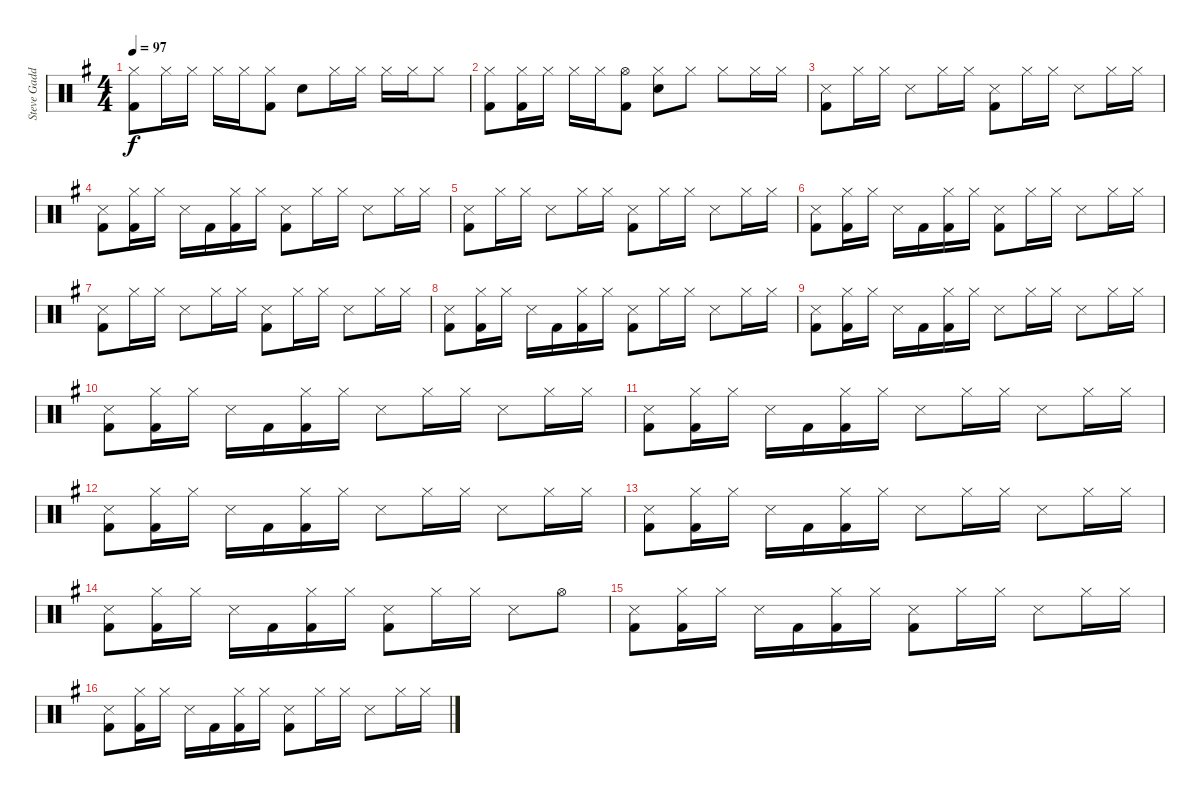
\track ("Steve Gadd" "Steve Gadd") {instrument percussion}
\staff {score}
\articulation defaults
\ts (4 4)
\tempo 97
\clef neutral
\ks g
("Hi-Hat (closed)" "Kick (hit) 2").8{dy f} "Hi-Hat (closed)".16 "Hi-Hat (closed)".16 "Hi-Hat (closed)".16 "Hi-Hat (closed)".16 ("Hi-Hat (closed)" "Kick (hit) 2").8 "Snare (hit) 2".8 "Hi-Hat (closed)".16 "Hi-Hat (closed)".16 "Hi-Hat (closed)".16 "Hi-Hat (closed)".16 "Hi-Hat (closed)".8 |
("Hi-Hat (closed)" "Kick (hit) 2").8 ("Hi-Hat (closed)" "Kick (hit) 2").16 "Hi-Hat (closed)".16 "Hi-Hat (closed)".16 "Hi-Hat (closed)".16 ("Hi-Hat (open)" "Kick (hit) 2").8 ("Hi-Hat (closed)" "Snare (hit) 2").8 "Hi-Hat (closed)".8 "Hi-Hat (closed)".8 "Hi-Hat (closed)".16 "Hi-Hat (closed)".16 |
("Snare (side stick) 3" "Kick (hit) 2").8 "Hi-Hat (closed)".16 "Hi-Hat (closed)".16 "Snare (side stick) 3".8 "Hi-Hat (closed)".16 "Hi-Hat (closed)".16 ("Snare (side stick) 3" "Kick (hit) 2").8 "Hi-Hat (closed)".16 "Hi-Hat (closed)".16 "Snare (side stick) 3".8 "Hi-Hat (closed)".16 "Hi-Hat (closed)".16 |
("Snare (side stick) 3" "Kick (hit) 2").8 ("Hi-Hat (closed)" "Kick (hit) 2").16 "Hi-Hat (closed)".16 "Snare (side stick) 3".16 "Kick (hit) 2".16 ("Hi-Hat (closed)" "Kick (hit) 2").16 "Hi-Hat (closed)".16 ("Snare (side stick) 3" "Kick (hit) 2").8 "Hi-Hat (closed)".16 "Hi-Hat (closed)".16 "Snare (side stick) 3".8 "Hi-Hat (closed)".16 "Hi-Hat (closed)".16 |
("Snare (side stick) 3" "Kick (hit) 2").8 "Hi-Hat (closed)".16 "Hi-Hat (closed)".16 "Snare (side stick) 3".8 "Hi-Hat (closed)".16 "Hi-Hat (closed)".16 ("Snare (side stick) 3" "Kick (hit) 2").8 "Hi-Hat (closed)".16 "Hi-Hat (closed)".16 "Snare (side stick) 3".8 "Hi-Hat (closed)".16 "Hi-Hat (closed)".16 |
("Snare (side stick) 3" "Kick (hit) 2").8 ("Hi-Hat (closed)" "Kick (hit) 2").16 "Hi-Hat (closed)".16 "Snare (side stick) 3".16 "Kick (hit) 2".16 ("Hi-Hat (closed)" "Kick (hit) 2").16 "Hi-Hat (closed)".16 ("Snare (side stick) 3" "Kick (hit) 2").8 "Hi-Hat (closed)".16 "Hi-Hat (closed)".16 "Snare (side stick) 3".8 "Hi-Hat (closed)".16 "Hi-Hat (closed)".16 |
("Snare (side stick) 3" "Kick (hit) 2").8 "Hi-Hat (closed)".16 "Hi-Hat (closed)".16 "Snare (side stick) 3".8 "Hi-Hat (closed)".16 "Hi-Hat (closed)".16 ("Snare (side stick) 3" "Kick (hit) 2").8 "Hi-Hat (closed)".16 "Hi-Hat (closed)".16 "Snare (side stick) 3".8 "Hi-Hat (closed)".16 "Hi-Hat (closed)".16 |
("Snare (side stick) 3" "Kick (hit) 2").8 ("Hi-Hat (closed)" "Kick (hit) 2").16 "Hi-Hat (closed)".16 "Snare (side stick) 3".16 "Kick (hit) 2".16 ("Hi-Hat (closed)" "Kick (hit) 2").16 "Hi-Hat (closed)".16 ("Snare (side stick) 3" "Kick (hit) 2").8 "Hi-Hat (closed)".16 "Hi-Hat (closed)".16 "Snare (side stick) 3".8 "Hi-Hat (closed)".16 "Hi-Hat (closed)".16 |
("Snare (side stick) 3" "Kick (hit) 2").8 ("Hi-Hat (closed)" "Kick (hit) 2").16 "Hi-Hat (closed)".16 "Snare (side stick) 3".16 "Kick (hit) 2".16 ("Hi-Hat (closed)" "Kick (hit) 2").16 "Hi-Hat (closed)".16 "Snare (side stick) 3".8 "Hi-Hat (closed)".16 "Hi-Hat (closed)".16 "Snare (side stick) 3".8 "Hi-Hat (closed)".16 "Hi-Hat (closed)".16 |
("Snare (side stick) 3" "Kick (hit) 2").8 ("Hi-Hat (closed)" "Kick (hit) 2").16 "Hi-Hat (closed)".16 "Snare (side stick) 3".16 "Kick (hit) 2".16 ("Hi-Hat (closed)" "Kick (hit) 2").16 "Hi-Hat (closed)".16 "Snare (side stick) 3".8 "Hi-Hat (closed)".16 "Hi-Hat (closed)".16 "Snare (side stick) 3".8 "Hi-Hat (closed)".16 "Hi-Hat (closed)".16 |
("Snare (side stick) 3" "Kick (hit) 2").8 ("Hi-Hat (closed)" "Kick (hit) 2").16 "Hi-Hat (closed)".16 "Snare (side stick) 3".16 "Kick (hit) 2".16 ("Hi-Hat (closed)" "Kick (hit) 2").16 "Hi-Hat (closed)".16 "Snare (side stick) 3".8 "Hi-Hat (closed)".16 "Hi-Hat (closed)".16 "Snare (side stick) 3".8 "Hi-Hat (closed)".16 "Hi-Hat (closed)".16 |
("Snare (side stick) 3" "Kick (hit) 2").8 ("Hi-Hat (closed)" "Kick (hit) 2").16 "Hi-Hat (closed)".16 "Snare (side stick) 3".16 "Kick (hit) 2".16 ("Hi-Hat (closed)" "Kick (hit) 2").16 "Hi-Hat (closed)".16 "Snare (side stick) 3".8 "Hi-Hat (closed)".16 "Hi-Hat (closed)".16 "Snare (side stick) 3".8 "Hi-Hat (closed)".16 "Hi-Hat (closed)".16 |
("Snare (side stick) 3" "Kick (hit) 2").8 ("Hi-Hat (closed)" "Kick (hit) 2").16 "Hi-Hat (closed)".16 "Snare (side stick) 3".16 "Kick (hit) 2".16 ("Hi-Hat (closed)" "Kick (hit) 2").16 "Hi-Hat (closed)".16 "Snare (side stick) 3".8 "Hi-Hat (closed)".16 "Hi-Hat (closed)".16 "Snare (side stick) 3".8 "Hi-Hat (closed)".16 "Hi-Hat (closed)".16 |
("Snare (side stick) 3" "Kick (hit) 2").8 ("Hi-Hat (closed)" "Kick (hit) 2").16 "Hi-Hat (closed)".16 "Snare (side stick) 3".16 "Kick (hit) 2".16 ("Hi-Hat (closed)" "Kick (hit) 2").16 "Hi-Hat (closed)".16 ("Snare (side stick) 3" "Kick (hit) 2").8 "Hi-Hat (closed)".16 "Hi-Hat (closed)".16 "Snare (side stick) 3".8 "Hi-Hat (open)".8 |
("Snare (side stick) 3" "Kick (hit) 2").8 ("Hi-Hat (closed)" "Kick (hit) 2").16 "Hi-Hat (closed)".16 "Snare (side stick) 3".16 "Kick (hit) 2".16 ("Hi-Hat (closed)" "Kick (hit) 2").16 "Hi-Hat (closed)".16 ("Snare (side stick) 3" "Kick (hit) 2").8 "Hi-Hat (closed)".16 "Hi-Hat (closed)".16 "Snare (side stick) 3".8 "Hi-Hat (closed)".16 "Hi-Hat (closed)".16 |
("Snare (side stick) 3" "Kick (hit) 2").8 ("Hi-Hat (closed)" "Kick (hit) 2").16 "Hi-Hat (closed)".16 "Snare (side stick) 3".16 "Kick (hit) 2".16 ("Hi-Hat (closed)" "Kick (hit) 2").16 "Hi-Hat (closed)".16 ("Snare (side stick) 3" "Kick (hit) 2").8 "Hi-Hat (closed)".16 "Hi-Hat (closed)".16 "Snare (side stick) 3".8 "Hi-Hat (closed)".16 "Hi-Hat (closed)".16
